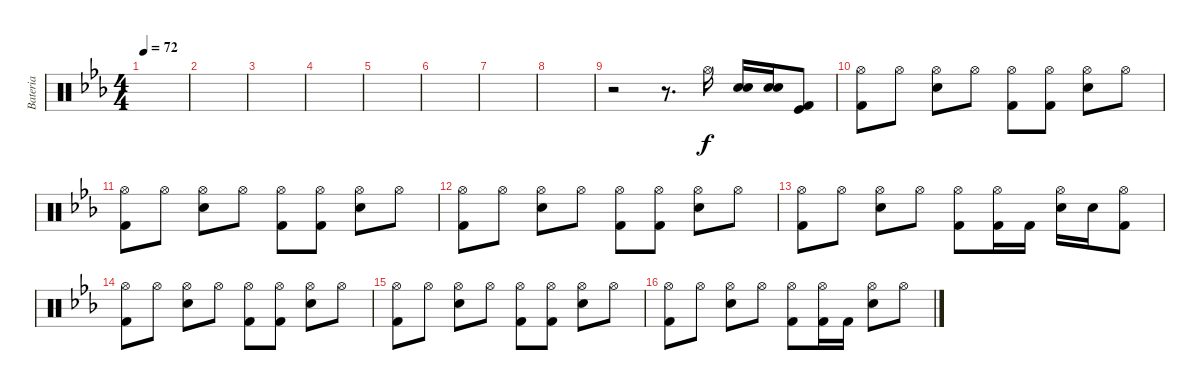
\track ("Bateria" "Bateria") {instrument percussion}
\staff {score}
\articulation defaults
\ts (4 4)
\tempo 72
\clef neutral
\ks eb
|
|
|
|
|
|
|
|
r.2 r.8{d} "Hi-Hat (open)".16 ("Electric Snare (hit)" "Electric Snare (hit)").16 ("Electric Snare (hit)" "Electric Snare (hit)").16 ("Kick (hit) 2" "Kick (hit)").8 |
("Hi-Hat (open)" "Kick (hit) 2").8 "Hi-Hat (open)".8 ("Hi-Hat (open)" "Electric Snare (hit)").8 "Hi-Hat (open)".8 ("Hi-Hat (open)" "Kick (hit) 2").8 ("Hi-Hat (open)" "Kick (hit) 2").8 ("Hi-Hat (open)" "Electric Snare (hit)").8 "Hi-Hat (open)".8 |
("Hi-Hat (open)" "Kick (hit) 2").8 "Hi-Hat (open)".8 ("Hi-Hat (open)" "Electric Snare (hit)").8 "Hi-Hat (open)".8 ("Hi-Hat (open)" "Kick (hit) 2").8 ("Hi-Hat (open)" "Kick (hit) 2").8 ("Hi-Hat (open)" "Electric Snare (hit)").8 "Hi-Hat (open)".8 |
("Hi-Hat (open)" "Kick (hit) 2").8 "Hi-Hat (open)".8 ("Hi-Hat (open)" "Electric Snare (hit)").8 "Hi-Hat (open)".8 ("Hi-Hat (open)" "Kick (hit) 2").8 ("Hi-Hat (open)" "Kick (hit) 2").8 ("Hi-Hat (open)" "Electric Snare (hit)").8 "Hi-Hat (open)".8 |
("Hi-Hat (open)" "Kick (hit) 2").8 "Hi-Hat (open)".8 ("Hi-Hat (open)" "Electric Snare (hit)").8 "Hi-Hat (open)".8 ("Hi-Hat (open)" "Kick (hit) 2").8 ("Hi-Hat (open)" "Kick (hit) 2").16 "Kick (hit) 2".16 ("Electric Snare (hit)" "Hi-Hat (open)").16 "Electric Snare (hit)".16 ("Kick (hit) 2" "Hi-Hat (open)").8 |
("Hi-Hat (open)" "Kick (hit) 2").8 "Hi-Hat (open)".8 ("Hi-Hat (open)" "Electric Snare (hit)").8 "Hi-Hat (open)".8 ("Hi-Hat (open)" "Kick (hit) 2").8 ("Hi-Hat (open)" "Kick (hit) 2").8 ("Hi-Hat (open)" "Electric Snare (hit)").8 "Hi-Hat (open)".8 |
("Hi-Hat (open)" "Kick (hit) 2").8 "Hi-Hat (open)".8 ("Hi-Hat (open)" "Electric Snare (hit)").8 "Hi-Hat (open)".8 ("Hi-Hat (open)" "Kick (hit) 2").8 ("Hi-Hat (open)" "Kick (hit) 2").8 ("Hi-Hat (open)" "Electric Snare (hit)").8 "Hi-Hat (open)".8 |
("Hi-Hat (open)" "Kick (hit) 2").8 "Hi-Hat (open)".8 ("Hi-Hat (open)" "Electric Snare (hit)").8 "Hi-Hat (open)".8 ("Hi-Hat (open)" "Kick (hit) 2").8 ("Hi-Hat (open)" "Kick (hit) 2").16 "Kick (hit) 2".16 ("Hi-Hat (open)" "Electric Snare (hit)").8 "Hi-Hat (open)".8
